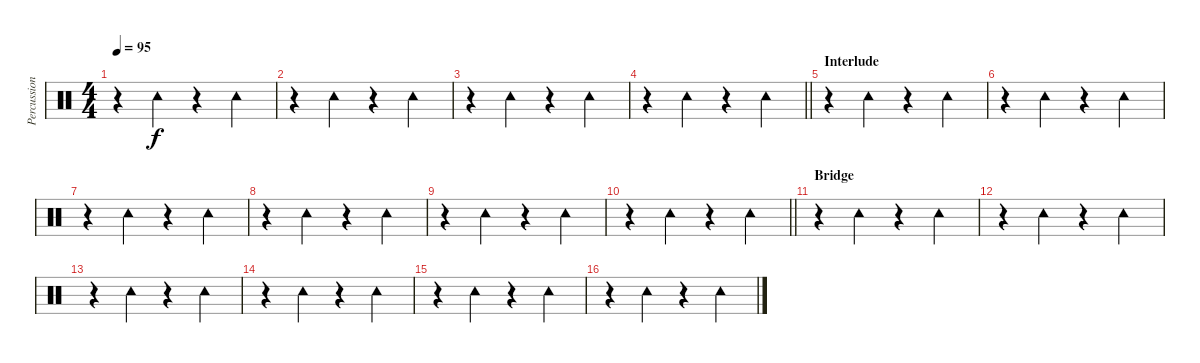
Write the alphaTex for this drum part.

\track ("Percussioni" "Percussion") {instrument percussion}
\staff {score}
\articulation defaults
\ts (4 4)
\tempo 95
\clef neutral
\ks c
r.4{dy f} "Tambourine (hit)".4 r.4 "Tambourine (hit)".4 |
r.4 "Tambourine (hit)".4 r.4 "Tambourine (hit)".4 |
r.4 "Tambourine (hit)".4 r.4 "Tambourine (hit)".4 |
\barLineRight lightlight
r.4 "Tambourine (hit)".4 r.4 "Tambourine (hit)".4 |
\section ("" "Interlude")
r.4 "Tambourine (hit)".4 r.4 "Tambourine (hit)".4 |
r.4 "Tambourine (hit)".4 r.4 "Tambourine (hit)".4 |
r.4 "Tambourine (hit)".4 r.4 "Tambourine (hit)".4 |
r.4 "Tambourine (hit)".4 r.4 "Tambourine (hit)".4 |
r.4 "Tambourine (hit)".4 r.4 "Tambourine (hit)".4 |
\barLineRight lightlight
r.4 "Tambourine (hit)".4 r.4 "Tambourine (hit)".4 |
\section ("" "Bridge")
r.4 "Tambourine (hit)".4 r.4 "Tambourine (hit)".4 |
r.4 "Tambourine (hit)".4 r.4 "Tambourine (hit)".4 |
r.4 "Tambourine (hit)".4 r.4 "Tambourine (hit)".4 |
r.4 "Tambourine (hit)".4 r.4 "Tambourine (hit)".4 |
r.4 "Tambourine (hit)".4 r.4 "Tambourine (hit)".4 |
r.4 "Tambourine (hit)".4 r.4 "Tambourine (hit)".4
